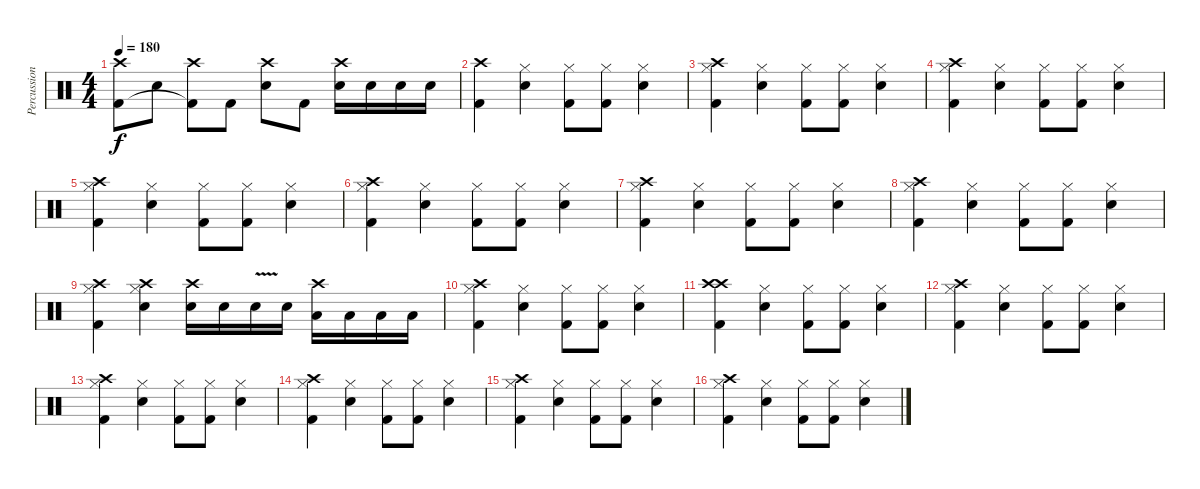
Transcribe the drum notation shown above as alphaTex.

\track ("Percussion" "Percussion") {instrument percussion}
\staff {score}
\articulation defaults
\ts (4 4)
\tempo 180
\clef neutral
\ks c
("Crash high (hit)" "Kick (hit) 2").8{dy f} "Snare (hit) 2".8 ("Crash high (hit)" "Kick (hit) 2"{t}).8 "Kick (hit) 2".8 ("Crash high (hit)" "Snare (hit) 2").8 "Kick (hit) 2".8 ("Crash high (hit)" "Snare (hit) 2").16 "Snare (hit) 2".16 "Snare (hit) 2".16 "Snare (hit) 2".16 |
("Crash high (hit)" "Kick (hit) 2").4 ("Hi-Hat (closed)" "Snare (hit) 2").4 ("Hi-Hat (closed)" "Kick (hit) 2").8 ("Hi-Hat (closed)" "Kick (hit) 2").8 ("Hi-Hat (closed)" "Snare (hit) 2").4 |
("Crash high (hit)" "Hi-Hat (closed)" "Kick (hit) 2").4 ("Hi-Hat (closed)" "Snare (hit) 2").4 ("Hi-Hat (closed)" "Kick (hit) 2").8 ("Hi-Hat (closed)" "Kick (hit) 2").8 ("Hi-Hat (closed)" "Snare (hit) 2").4 |
("Crash high (hit)" "Hi-Hat (closed)" "Kick (hit) 2").4 ("Hi-Hat (closed)" "Snare (hit) 2").4 ("Hi-Hat (closed)" "Kick (hit) 2").8 ("Hi-Hat (closed)" "Kick (hit) 2").8 ("Hi-Hat (closed)" "Snare (hit) 2").4 |
("Crash high (hit)" "Hi-Hat (closed)" "Kick (hit) 2").4 ("Hi-Hat (closed)" "Snare (hit) 2").4 ("Hi-Hat (closed)" "Kick (hit) 2").8 ("Hi-Hat (closed)" "Kick (hit) 2").8 ("Hi-Hat (closed)" "Snare (hit) 2").4 |
("Crash high (hit)" "Hi-Hat (closed)" "Kick (hit) 2").4 ("Hi-Hat (closed)" "Snare (hit) 2").4 ("Hi-Hat (closed)" "Kick (hit) 2").8 ("Hi-Hat (closed)" "Kick (hit) 2").8 ("Hi-Hat (closed)" "Snare (hit) 2").4 |
("Crash high (hit)" "Hi-Hat (closed)" "Kick (hit) 2").4 ("Hi-Hat (closed)" "Snare (hit) 2").4 ("Hi-Hat (closed)" "Kick (hit) 2").8 ("Hi-Hat (closed)" "Kick (hit) 2").8 ("Hi-Hat (closed)" "Snare (hit) 2").4 |
("Crash high (hit)" "Hi-Hat (closed)" "Kick (hit) 2").4 ("Hi-Hat (closed)" "Snare (hit) 2").4 ("Hi-Hat (closed)" "Kick (hit) 2").8 ("Hi-Hat (closed)" "Kick (hit) 2").8 ("Hi-Hat (closed)" "Snare (hit) 2").4 |
("Crash high (hit)" "Hi-Hat (closed)" "Kick (hit) 2").4 ("Crash high (hit)" "Hi-Hat (closed)" "Snare (hit) 2").4 ("Crash high (hit)" "Snare (hit) 2").16 "Snare (hit) 2".16 "Snare (hit) 2"{v}.16 "Snare (hit) 2".16 ("Crash high (hit)" "Low Floor Tom (hit)").16 "Low Floor Tom (hit)".16 "Low Tom (hit)".16 "Low Tom (hit)".16 |
("Crash high (hit)" "Hi-Hat (closed)" "Kick (hit) 2").4 ("Hi-Hat (closed)" "Snare (hit) 2").4 ("Hi-Hat (closed)" "Kick (hit) 2").8 ("Hi-Hat (closed)" "Kick (hit) 2").8 ("Hi-Hat (closed)" "Snare (hit) 2").4 |
("Crash high (hit)" "Crash high (hit)" "Kick (hit) 2").4 ("Hi-Hat (closed)" "Snare (hit) 2").4 ("Hi-Hat (closed)" "Kick (hit) 2").8 ("Hi-Hat (closed)" "Kick (hit) 2").8 ("Hi-Hat (closed)" "Snare (hit) 2").4 |
("Crash high (hit)" "Hi-Hat (closed)" "Kick (hit) 2").4 ("Hi-Hat (closed)" "Snare (hit) 2").4 ("Hi-Hat (closed)" "Kick (hit) 2").8 ("Hi-Hat (closed)" "Kick (hit) 2").8 ("Hi-Hat (closed)" "Snare (hit) 2").4 |
("Crash high (hit)" "Hi-Hat (closed)" "Kick (hit) 2").4 ("Hi-Hat (closed)" "Snare (hit) 2").4 ("Hi-Hat (closed)" "Kick (hit) 2").8 ("Hi-Hat (closed)" "Kick (hit) 2").8 ("Hi-Hat (closed)" "Snare (hit) 2").4 |
("Crash high (hit)" "Hi-Hat (closed)" "Kick (hit) 2").4 ("Hi-Hat (closed)" "Snare (hit) 2").4 ("Hi-Hat (closed)" "Kick (hit) 2").8 ("Hi-Hat (closed)" "Kick (hit) 2").8 ("Hi-Hat (closed)" "Snare (hit) 2").4 |
("Crash high (hit)" "Hi-Hat (closed)" "Kick (hit) 2").4 ("Hi-Hat (closed)" "Snare (hit) 2").4 ("Hi-Hat (closed)" "Kick (hit) 2").8 ("Hi-Hat (closed)" "Kick (hit) 2").8 ("Hi-Hat (closed)" "Snare (hit) 2").4 |
("Crash high (hit)" "Hi-Hat (closed)" "Kick (hit) 2").4 ("Hi-Hat (closed)" "Snare (hit) 2").4 ("Hi-Hat (closed)" "Kick (hit) 2").8 ("Hi-Hat (closed)" "Kick (hit) 2").8 ("Hi-Hat (closed)" "Snare (hit) 2").4
